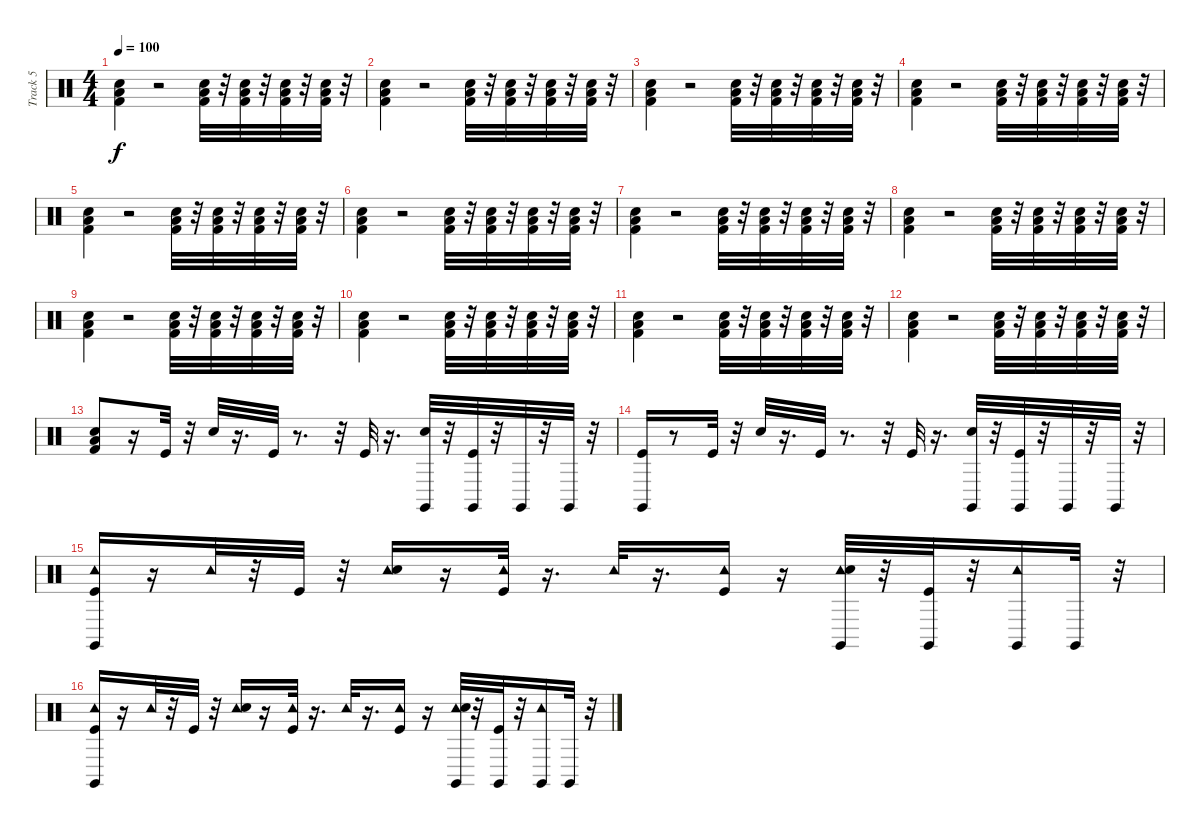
\track ("Track 5" "Track 5") {instrument percussion}
\staff {score}
\articulation defaults
\ts (4 4)
\tempo 100
\clef neutral
\ks c
("Snare (hit) 2" "Kick (hit) 2" "Low Floor Tom (hit)").4{dy f} r.2 ("Snare (hit) 2" "Kick (hit) 2" "Low Floor Tom (hit)").32 r.32 ("Snare (hit) 2" "Kick (hit) 2" "Low Floor Tom (hit)").32 r.32 ("Snare (hit) 2" "Kick (hit) 2" "Low Floor Tom (hit)").32 r.32 ("Snare (hit) 2" "Kick (hit) 2" "Low Floor Tom (hit)").32 r.32 |
("Low Floor Tom (hit)" "Snare (hit) 2" "Kick (hit) 2").4 r.2 ("Snare (hit) 2" "Kick (hit) 2" "Low Floor Tom (hit)").32 r.32 ("Snare (hit) 2" "Kick (hit) 2" "Low Floor Tom (hit)").32 r.32 ("Snare (hit) 2" "Kick (hit) 2" "Low Floor Tom (hit)").32 r.32 ("Snare (hit) 2" "Kick (hit) 2" "Low Floor Tom (hit)").32 r.32 |
("Kick (hit) 2" "Low Floor Tom (hit)" "Snare (hit) 2").4 r.2 ("Snare (hit) 2" "Kick (hit) 2" "Low Floor Tom (hit)").32 r.32 ("Snare (hit) 2" "Kick (hit) 2" "Low Floor Tom (hit)").32 r.32 ("Snare (hit) 2" "Kick (hit) 2" "Low Floor Tom (hit)").32 r.32 ("Snare (hit) 2" "Kick (hit) 2" "Low Floor Tom (hit)").32 r.32 |
("Low Floor Tom (hit)" "Snare (hit) 2" "Kick (hit) 2").4 r.2 ("Snare (hit) 2" "Kick (hit) 2" "Low Floor Tom (hit)").32 r.32 ("Snare (hit) 2" "Kick (hit) 2" "Low Floor Tom (hit)").32 r.32 ("Snare (hit) 2" "Kick (hit) 2" "Low Floor Tom (hit)").32 r.32 ("Snare (hit) 2" "Kick (hit) 2" "Low Floor Tom (hit)").32 r.32 |
("Kick (hit) 2" "Low Floor Tom (hit)" "Snare (hit) 2").4 r.2 ("Snare (hit) 2" "Kick (hit) 2" "Low Floor Tom (hit)").32 r.32 ("Snare (hit) 2" "Kick (hit) 2" "Low Floor Tom (hit)").32 r.32 ("Snare (hit) 2" "Kick (hit) 2" "Low Floor Tom (hit)").32 r.32 ("Snare (hit) 2" "Kick (hit) 2" "Low Floor Tom (hit)").32 r.32 |
("Low Floor Tom (hit)" "Snare (hit) 2" "Kick (hit) 2").4 r.2 ("Snare (hit) 2" "Kick (hit) 2" "Low Floor Tom (hit)").32 r.32 ("Snare (hit) 2" "Kick (hit) 2" "Low Floor Tom (hit)").32 r.32 ("Snare (hit) 2" "Kick (hit) 2" "Low Floor Tom (hit)").32 r.32 ("Snare (hit) 2" "Kick (hit) 2" "Low Floor Tom (hit)").32 r.32 |
("Kick (hit) 2" "Low Floor Tom (hit)" "Snare (hit) 2").4 r.2 ("Snare (hit) 2" "Kick (hit) 2" "Low Floor Tom (hit)").32 r.32 ("Snare (hit) 2" "Kick (hit) 2" "Low Floor Tom (hit)").32 r.32 ("Snare (hit) 2" "Kick (hit) 2" "Low Floor Tom (hit)").32 r.32 ("Snare (hit) 2" "Kick (hit) 2" "Low Floor Tom (hit)").32 r.32 |
("Low Floor Tom (hit)" "Snare (hit) 2" "Kick (hit) 2").4 r.2 ("Snare (hit) 2" "Kick (hit) 2" "Low Floor Tom (hit)").32 r.32 ("Snare (hit) 2" "Kick (hit) 2" "Low Floor Tom (hit)").32 r.32 ("Snare (hit) 2" "Kick (hit) 2" "Low Floor Tom (hit)").32 r.32 ("Snare (hit) 2" "Kick (hit) 2" "Low Floor Tom (hit)").32 r.32 |
("Snare (hit) 2" "Kick (hit) 2" "Low Floor Tom (hit)").4 r.2 ("Snare (hit) 2" "Kick (hit) 2" "Low Floor Tom (hit)").32 r.32 ("Snare (hit) 2" "Kick (hit) 2" "Low Floor Tom (hit)").32 r.32 ("Snare (hit) 2" "Kick (hit) 2" "Low Floor Tom (hit)").32 r.32 ("Snare (hit) 2" "Kick (hit) 2" "Low Floor Tom (hit)").32 r.32 |
("Low Floor Tom (hit)" "Snare (hit) 2" "Kick (hit) 2").4 r.2 ("Snare (hit) 2" "Kick (hit) 2" "Low Floor Tom (hit)").32 r.32 ("Snare (hit) 2" "Kick (hit) 2" "Low Floor Tom (hit)").32 r.32 ("Snare (hit) 2" "Kick (hit) 2" "Low Floor Tom (hit)").32 r.32 ("Snare (hit) 2" "Kick (hit) 2" "Low Floor Tom (hit)").32 r.32 |
("Kick (hit) 2" "Low Floor Tom (hit)" "Snare (hit) 2").4 r.2 ("Snare (hit) 2" "Kick (hit) 2" "Low Floor Tom (hit)").32 r.32 ("Snare (hit) 2" "Kick (hit) 2" "Low Floor Tom (hit)").32 r.32 ("Snare (hit) 2" "Kick (hit) 2" "Low Floor Tom (hit)").32 r.32 ("Snare (hit) 2" "Kick (hit) 2" "Low Floor Tom (hit)").32 r.32 |
("Low Floor Tom (hit)" "Snare (hit) 2" "Kick (hit) 2").4 r.2 ("Low Floor Tom (hit)" "Snare (hit) 2" "Kick (hit) 2").32 r.32 ("Snare (hit) 2" "Kick (hit) 2" "Low Floor Tom (hit)").32 r.32 ("Snare (hit) 2" "Kick (hit) 2" "Low Floor Tom (hit)").32 r.32 ("Snare (hit) 2" "Kick (hit) 2" "Low Floor Tom (hit)").32 r.32 |
("Low Floor Tom (hit)" "Snare (hit) 2" "Kick (hit) 2").8 r.16 "Kick (hit)".32 r.32 "Snare (hit) 2".32 r.16{d} "Kick (hit)".32 r.8{d} r.32 "Kick (hit)".32 r.16{d} ("Claves (hit)" "Snare (hit) 2").32 r.32 ("Kick (hit)" "Claves (hit)").32 r.32 "Claves (hit)".32 r.32 "Claves (hit)".32 r.32 |
("Claves (hit)" "Kick (hit)").16 r.8 "Kick (hit)".32 r.32 "Snare (hit) 2".32 r.16{d} "Kick (hit)".32 r.8{d} r.32 "Kick (hit)".32 r.16{d} ("Claves (hit)" "Snare (hit) 2").32 r.32 ("Claves (hit)" "Kick (hit)").32 r.32 "Claves (hit)".32 r.32 "Claves (hit)".32 r.32 |
("Tambourine (hit)" "Claves (hit)" "Kick (hit)").16 r.16 "Tambourine (hit)".32 r.32 "Kick (hit)".32 r.32 ("Tambourine (hit)" "Snare (hit) 2").16 r.16 ("Tambourine (hit)" "Kick (hit)").32 r.16{d} "Tambourine (hit)".32 r.16{d} ("Tambourine (hit)" "Kick (hit)").16 r.16 ("Tambourine (hit)" "Claves (hit)" "Snare (hit) 2").32 r.32 ("Claves (hit)" "Kick (hit)").32 r.32 ("Tambourine (hit)" "Claves (hit)").16 "Claves (hit)".32 r.32 |
("Tambourine (hit)" "Claves (hit)" "Kick (hit)").16 r.16 "Tambourine (hit)".32 r.32 "Kick (hit)".32 r.32 ("Tambourine (hit)" "Snare (hit) 2").16 r.16 ("Tambourine (hit)" "Kick (hit)").32 r.16{d} "Tambourine (hit)".32 r.16{d} ("Tambourine (hit)" "Kick (hit)").16 r.16 ("Tambourine (hit)" "Claves (hit)" "Snare (hit) 2").32 r.32 ("Claves (hit)" "Kick (hit)").32 r.32 ("Tambourine (hit)" "Claves (hit)").16 "Claves (hit)".32 r.32
